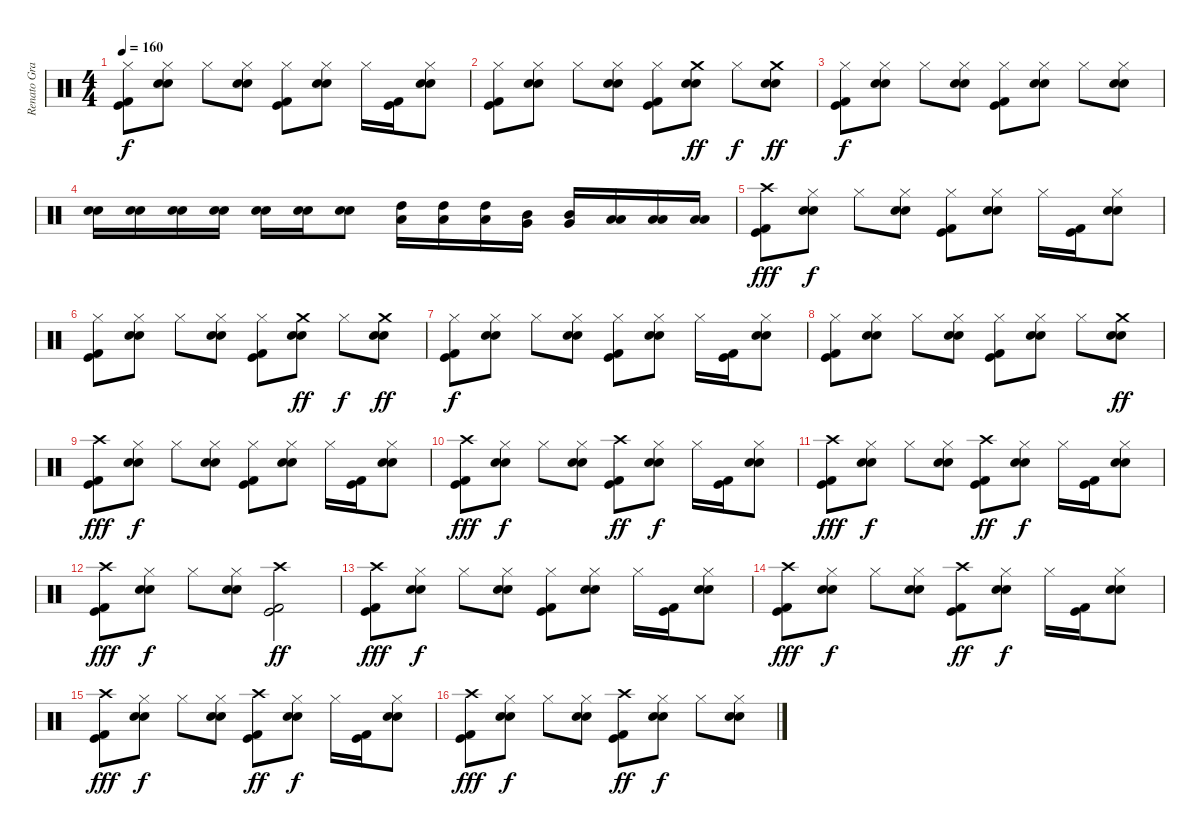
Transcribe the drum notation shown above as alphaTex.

\track ("Renato Graccia" "Renato Gra") {instrument percussion}
\staff {score}
\articulation defaults
\ts (4 4)
\tempo 160
\clef neutral
\ks c
("Hi-Hat (closed)" "Kick (hit) 2" "Kick (hit)").8{dy f} ("Hi-Hat (closed)" "Electric Snare (hit)" "Snare (hit) 2").8 "Hi-Hat (closed)".8 ("Hi-Hat (closed)" "Electric Snare (hit)" "Snare (hit) 2").8 ("Hi-Hat (closed)" "Kick (hit) 2" "Kick (hit)").8 ("Hi-Hat (closed)" "Electric Snare (hit)" "Snare (hit) 2").8 "Hi-Hat (closed)".16 ("Kick (hit) 2" "Kick (hit)").16 ("Hi-Hat (closed)" "Electric Snare (hit)" "Snare (hit) 2").8 |
("Hi-Hat (closed)" "Kick (hit) 2" "Kick (hit)").8 ("Hi-Hat (closed)" "Electric Snare (hit)" "Snare (hit) 2").8 "Hi-Hat (closed)".8 ("Hi-Hat (closed)" "Electric Snare (hit)" "Snare (hit) 2").8 ("Hi-Hat (closed)" "Kick (hit) 2" "Kick (hit)").8 ("Crash medium (hit)" "Electric Snare (hit)" "Snare (hit) 2").8{dy ff} "Hi-Hat (closed)".8{dy f} ("Crash medium (hit)" "Electric Snare (hit)" "Snare (hit) 2").8{dy ff} |
("Hi-Hat (closed)" "Kick (hit) 2" "Kick (hit)").8{dy f} ("Hi-Hat (closed)" "Electric Snare (hit)" "Snare (hit) 2").8 "Hi-Hat (closed)".8 ("Hi-Hat (closed)" "Electric Snare (hit)" "Snare (hit) 2").8 ("Hi-Hat (closed)" "Kick (hit) 2" "Kick (hit)").8 ("Hi-Hat (closed)" "Electric Snare (hit)" "Snare (hit) 2").8 "Hi-Hat (closed)".8 ("Hi-Hat (closed)" "Electric Snare (hit)" "Snare (hit) 2").8 |
("Electric Snare (hit)" "Snare (hit) 2").16 ("Electric Snare (hit)" "Snare (hit) 2").16 ("Electric Snare (hit)" "Snare (hit) 2").16 ("Electric Snare (hit)" "Snare (hit) 2").16 ("Electric Snare (hit)" "Snare (hit) 2").16 ("Electric Snare (hit)" "Snare (hit) 2").16 ("Electric Snare (hit)" "Snare (hit) 2").8 ("High Tom (hit)" "Low Tom (hit)").16 ("High Tom (hit)" "Low Tom (hit)").16 ("High Tom (hit)" "Low Tom (hit)").16 ("Mid Tom (hit)" "Very Low Tom (hit)").16 ("Mid Tom (hit)" "Very Low Tom (hit)").16 ("Low Tom (hit)" "Low Floor Tom (hit)").16 ("Low Tom (hit)" "Low Floor Tom (hit)").16 ("Low Tom (hit)" "Low Floor Tom (hit)").16 |
("Crash high (hit)" "Kick (hit) 2" "Kick (hit)").8{dy fff} ("Hi-Hat (closed)" "Electric Snare (hit)" "Snare (hit) 2").8{dy f} "Hi-Hat (closed)".8 ("Hi-Hat (closed)" "Electric Snare (hit)" "Snare (hit) 2").8 ("Hi-Hat (closed)" "Kick (hit) 2" "Kick (hit)").8 ("Hi-Hat (closed)" "Electric Snare (hit)" "Snare (hit) 2").8 "Hi-Hat (closed)".16 ("Kick (hit) 2" "Kick (hit)").16 ("Hi-Hat (closed)" "Electric Snare (hit)" "Snare (hit) 2").8 |
("Hi-Hat (closed)" "Kick (hit) 2" "Kick (hit)").8 ("Hi-Hat (closed)" "Electric Snare (hit)" "Snare (hit) 2").8 "Hi-Hat (closed)".8 ("Hi-Hat (closed)" "Electric Snare (hit)" "Snare (hit) 2").8 ("Hi-Hat (closed)" "Kick (hit) 2" "Kick (hit)").8 ("Crash medium (hit)" "Electric Snare (hit)" "Snare (hit) 2").8{dy ff} "Hi-Hat (closed)".8{dy f} ("Crash medium (hit)" "Electric Snare (hit)" "Snare (hit) 2").8{dy ff} |
("Hi-Hat (closed)" "Kick (hit) 2" "Kick (hit)").8{dy f} ("Hi-Hat (closed)" "Electric Snare (hit)" "Snare (hit) 2").8 "Hi-Hat (closed)".8 ("Hi-Hat (closed)" "Electric Snare (hit)" "Snare (hit) 2").8 ("Hi-Hat (closed)" "Kick (hit) 2" "Kick (hit)").8 ("Hi-Hat (closed)" "Electric Snare (hit)" "Snare (hit) 2").8 "Hi-Hat (closed)".16 ("Kick (hit) 2" "Kick (hit)").16 ("Hi-Hat (closed)" "Electric Snare (hit)" "Snare (hit) 2").8 |
("Hi-Hat (closed)" "Kick (hit) 2" "Kick (hit)").8 ("Hi-Hat (closed)" "Electric Snare (hit)" "Snare (hit) 2").8 "Hi-Hat (closed)".8 ("Hi-Hat (closed)" "Electric Snare (hit)" "Snare (hit) 2").8 ("Hi-Hat (closed)" "Kick (hit) 2" "Kick (hit)").8 ("Hi-Hat (closed)" "Electric Snare (hit)" "Snare (hit) 2").8 "Hi-Hat (closed)".8 ("Crash medium (hit)" "Electric Snare (hit)" "Snare (hit) 2").8{dy ff} |
("Crash high (hit)" "Kick (hit) 2" "Kick (hit)").8{dy fff} ("Hi-Hat (closed)" "Electric Snare (hit)" "Snare (hit) 2").8{dy f} "Hi-Hat (closed)".8 ("Hi-Hat (closed)" "Electric Snare (hit)" "Snare (hit) 2").8 ("Hi-Hat (closed)" "Kick (hit) 2" "Kick (hit)").8 ("Hi-Hat (closed)" "Electric Snare (hit)" "Snare (hit) 2").8 "Hi-Hat (closed)".16 ("Kick (hit) 2" "Kick (hit)").16 ("Hi-Hat (closed)" "Electric Snare (hit)" "Snare (hit) 2").8 |
("Crash high (hit)" "Kick (hit) 2" "Kick (hit)").8{dy fff} ("Hi-Hat (closed)" "Electric Snare (hit)" "Snare (hit) 2").8{dy f} "Hi-Hat (closed)".8 ("Hi-Hat (closed)" "Electric Snare (hit)" "Snare (hit) 2").8 ("Crash high (hit)" "Kick (hit) 2" "Kick (hit)").8{dy ff} ("Hi-Hat (closed)" "Electric Snare (hit)" "Snare (hit) 2").8{dy f} "Hi-Hat (closed)".16 ("Kick (hit) 2" "Kick (hit)").16 ("Hi-Hat (closed)" "Electric Snare (hit)" "Snare (hit) 2").8 |
("Crash high (hit)" "Kick (hit) 2" "Kick (hit)").8{dy fff} ("Hi-Hat (closed)" "Electric Snare (hit)" "Snare (hit) 2").8{dy f} "Hi-Hat (closed)".8 ("Hi-Hat (closed)" "Electric Snare (hit)" "Snare (hit) 2").8 ("Crash high (hit)" "Kick (hit) 2" "Kick (hit)").8{dy ff} ("Hi-Hat (closed)" "Electric Snare (hit)" "Snare (hit) 2").8{dy f} "Hi-Hat (closed)".16 ("Kick (hit) 2" "Kick (hit)").16 ("Hi-Hat (closed)" "Electric Snare (hit)" "Snare (hit) 2").8 |
("Crash high (hit)" "Kick (hit) 2" "Kick (hit)").8{dy fff} ("Hi-Hat (closed)" "Electric Snare (hit)" "Snare (hit) 2").8{dy f} "Hi-Hat (closed)".8 ("Hi-Hat (closed)" "Electric Snare (hit)" "Snare (hit) 2").8 ("Crash high (hit)" "Kick (hit) 2" "Kick (hit)").2{dy ff} |
("Crash high (hit)" "Kick (hit) 2" "Kick (hit)").8{dy fff} ("Hi-Hat (closed)" "Electric Snare (hit)" "Snare (hit) 2").8{dy f} "Hi-Hat (closed)".8 ("Hi-Hat (closed)" "Electric Snare (hit)" "Snare (hit) 2").8 ("Hi-Hat (closed)" "Kick (hit) 2" "Kick (hit)").8 ("Hi-Hat (closed)" "Electric Snare (hit)" "Snare (hit) 2").8 "Hi-Hat (closed)".16 ("Kick (hit) 2" "Kick (hit)").16 ("Hi-Hat (closed)" "Electric Snare (hit)" "Snare (hit) 2").8 |
("Crash high (hit)" "Kick (hit) 2" "Kick (hit)").8{dy fff} ("Hi-Hat (closed)" "Electric Snare (hit)" "Snare (hit) 2").8{dy f} "Hi-Hat (closed)".8 ("Hi-Hat (closed)" "Electric Snare (hit)" "Snare (hit) 2").8 ("Crash high (hit)" "Kick (hit) 2" "Kick (hit)").8{dy ff} ("Hi-Hat (closed)" "Electric Snare (hit)" "Snare (hit) 2").8{dy f} "Hi-Hat (closed)".16 ("Kick (hit) 2" "Kick (hit)").16 ("Hi-Hat (closed)" "Electric Snare (hit)" "Snare (hit) 2").8 |
("Crash high (hit)" "Kick (hit) 2" "Kick (hit)").8{dy fff} ("Hi-Hat (closed)" "Electric Snare (hit)" "Snare (hit) 2").8{dy f} "Hi-Hat (closed)".8 ("Hi-Hat (closed)" "Electric Snare (hit)" "Snare (hit) 2").8 ("Crash high (hit)" "Kick (hit) 2" "Kick (hit)").8{dy ff} ("Hi-Hat (closed)" "Electric Snare (hit)" "Snare (hit) 2").8{dy f} "Hi-Hat (closed)".16 ("Kick (hit) 2" "Kick (hit)").16 ("Hi-Hat (closed)" "Electric Snare (hit)" "Snare (hit) 2").8 |
("Crash high (hit)" "Kick (hit) 2" "Kick (hit)").8{dy fff} ("Hi-Hat (closed)" "Electric Snare (hit)" "Snare (hit) 2").8{dy f} "Hi-Hat (closed)".8 ("Hi-Hat (closed)" "Electric Snare (hit)" "Snare (hit) 2").8 ("Crash high (hit)" "Kick (hit) 2" "Kick (hit)").8{dy ff} ("Hi-Hat (closed)" "Electric Snare (hit)" "Snare (hit) 2").8{dy f} "Hi-Hat (closed)".8 ("Hi-Hat (closed)" "Electric Snare (hit)" "Snare (hit) 2").8
